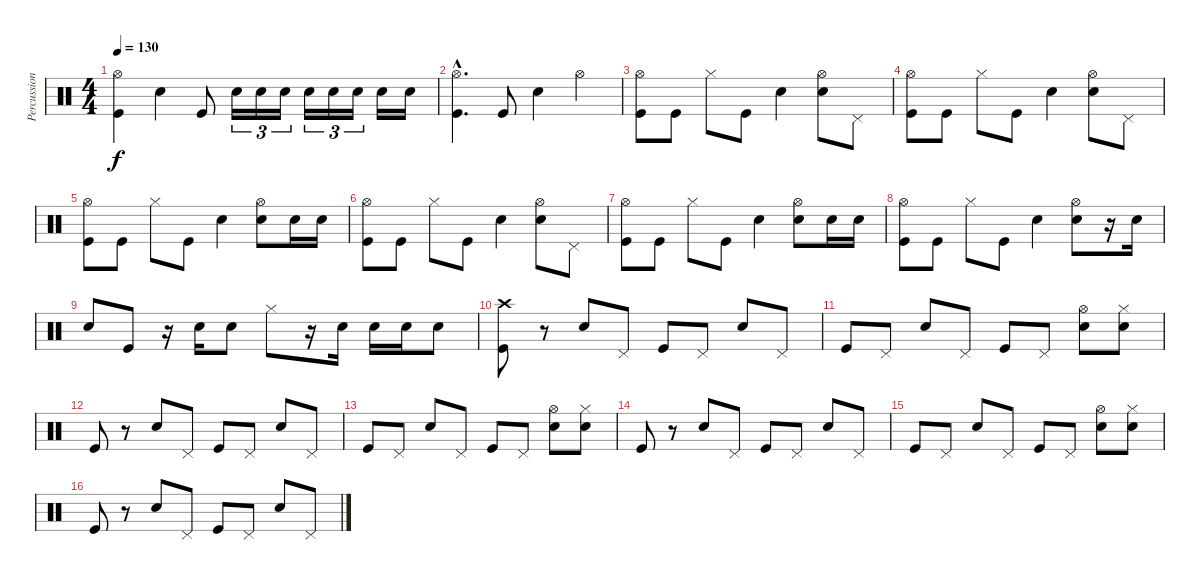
\track ("Percussions" "Percussion") {instrument percussion}
\staff {score}
\articulation defaults
\ts (4 4)
\tempo 130
\clef neutral
\ks c
("Hi-Hat (open)" "Kick (hit)").4{dy f} "Snare (hit) 2".4 "Kick (hit)".8 "Snare (hit) 2".16{tu (3 2)} "Snare (hit) 2".16{tu (3 2)} "Snare (hit) 2".16{tu (3 2)} "Snare (hit) 2".16{tu (3 2)} "Snare (hit) 2".16{tu (3 2)} "Snare (hit) 2".16{tu (3 2)} "Snare (hit) 2".16 "Snare (hit) 2".16 |
("Hi-Hat (open)"{hac} "Kick (hit)"{hac}).4{d} "Kick (hit)".8 "Snare (hit) 2".4 "Hi-Hat (open)".4 |
("Hi-Hat (open)" "Kick (hit)").8 "Kick (hit)".8 "Hi-Hat (closed)".8 "Kick (hit)".8 "Snare (hit) 2".4 ("Hi-Hat (open)" "Snare (hit) 2").8 "Pedal Hi-Hat (hit)".8 |
("Hi-Hat (open)" "Kick (hit)").8 "Kick (hit)".8 "Hi-Hat (closed)".8 "Kick (hit)".8 "Snare (hit) 2".4 ("Hi-Hat (open)" "Snare (hit) 2").8 "Pedal Hi-Hat (hit)".8 |
("Hi-Hat (open)" "Kick (hit)").8 "Kick (hit)".8 "Hi-Hat (closed)".8 "Kick (hit)".8 "Snare (hit) 2".4 ("Hi-Hat (open)" "Snare (hit) 2").8 "Snare (hit) 2".16 "Snare (hit) 2".16 |
("Hi-Hat (open)" "Kick (hit)").8 "Kick (hit)".8 "Hi-Hat (closed)".8 "Kick (hit)".8 "Snare (hit) 2".4 ("Hi-Hat (open)" "Snare (hit) 2").8 "Pedal Hi-Hat (hit)".8 |
("Hi-Hat (open)" "Kick (hit)").8 "Kick (hit)".8 "Hi-Hat (closed)".8 "Kick (hit)".8 "Snare (hit) 2".4 ("Hi-Hat (open)" "Snare (hit) 2").8 "Snare (hit) 2".16 "Snare (hit) 2".16 |
("Hi-Hat (open)" "Kick (hit)").8 "Kick (hit)".8 "Hi-Hat (closed)".8 "Kick (hit)".8 "Snare (hit) 2".4 ("Hi-Hat (open)" "Snare (hit) 2").8 r.16 "Snare (hit) 2".16 |
"Snare (hit) 2".8 "Kick (hit)".8 r.16 "Snare (hit) 2".16 "Snare (hit) 2".8 "Hi-Hat (closed)".8 r.16 "Snare (hit) 2".16 "Snare (hit) 2".16 "Snare (hit) 2".16 "Snare (hit) 2".8 |
("Crash high (hit)" "Kick (hit)").8 r.8 "Snare (hit) 2".8 "Pedal Hi-Hat (hit)".8 "Kick (hit)".8 "Pedal Hi-Hat (hit)".8 "Snare (hit) 2".8 "Pedal Hi-Hat (hit)".8 |
"Kick (hit)".8 "Pedal Hi-Hat (hit)".8 "Snare (hit) 2".8 "Pedal Hi-Hat (hit)".8 "Kick (hit)".8 "Pedal Hi-Hat (hit)".8 ("Hi-Hat (open)" "Snare (hit) 2").8 ("Hi-Hat (closed)" "Snare (hit) 2").8 |
"Kick (hit)".8 r.8 "Snare (hit) 2".8 "Pedal Hi-Hat (hit)".8 "Kick (hit)".8 "Pedal Hi-Hat (hit)".8 "Snare (hit) 2".8 "Pedal Hi-Hat (hit)".8 |
"Kick (hit)".8 "Pedal Hi-Hat (hit)".8 "Snare (hit) 2".8 "Pedal Hi-Hat (hit)".8 "Kick (hit)".8 "Pedal Hi-Hat (hit)".8 ("Hi-Hat (open)" "Snare (hit) 2").8 ("Hi-Hat (closed)" "Snare (hit) 2").8 |
"Kick (hit)".8 r.8 "Snare (hit) 2".8 "Pedal Hi-Hat (hit)".8 "Kick (hit)".8 "Pedal Hi-Hat (hit)".8 "Snare (hit) 2".8 "Pedal Hi-Hat (hit)".8 |
"Kick (hit)".8 "Pedal Hi-Hat (hit)".8 "Snare (hit) 2".8 "Pedal Hi-Hat (hit)".8 "Kick (hit)".8 "Pedal Hi-Hat (hit)".8 ("Hi-Hat (open)" "Snare (hit) 2").8 ("Hi-Hat (closed)" "Snare (hit) 2").8 |
"Kick (hit)".8 r.8 "Snare (hit) 2".8 "Pedal Hi-Hat (hit)".8 "Kick (hit)".8 "Pedal Hi-Hat (hit)".8 "Snare (hit) 2".8 "Pedal Hi-Hat (hit)".8
